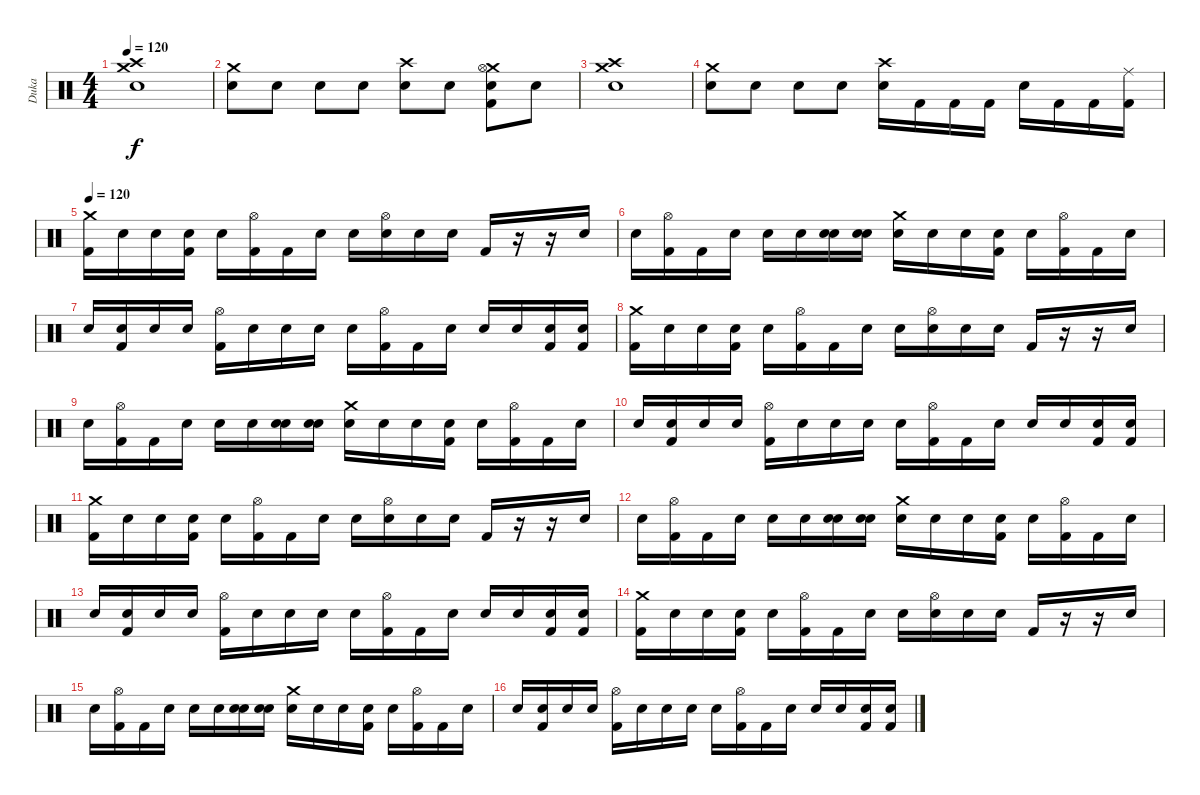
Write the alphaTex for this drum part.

\track ("Duka" "Duka") {instrument percussion}
\staff {score}
\articulation defaults
\ts (4 4)
\tempo 120
\clef neutral
\ks c
("Crash high (hit)" "Crash medium (hit)" "Snare (hit) 2").1{dy f} |
("Snare (hit) 2" "Crash medium (hit)").8 "Snare (hit)".8 "Snare (hit)".8 "Snare (hit)".8 ("Crash high (hit)" "Snare (hit) 2").8 "Snare (hit)".8 ("Crash medium (hit)" "Hi-Hat (open)" "Snare (hit) 2" "Kick (hit) 2").8 "Snare (hit)".8 |
("Crash high (hit)" "Crash medium (hit)" "Snare (hit) 2").1 |
("Snare (hit) 2" "Crash medium (hit)").8 "Snare (hit)".8 "Snare (hit)".8 "Snare (hit)".8 ("Crash high (hit)" "Snare (hit) 2").16 "Kick (hit) 2".16 "Kick (hit) 2".16 "Kick (hit) 2".16 "Snare (hit) 2".16 "Kick (hit) 2".16 "Kick (hit) 2".16 ("Ride (middle)" "Kick (hit) 2").16 |
\tempo 120
("Crash medium (hit)" "Kick (hit) 2").16 "Snare (hit)".16 "Snare (hit)".16 ("Snare (hit) 2" "Kick (hit) 2").16 "Snare (hit)".16 ("Hi-Hat (open)" "Kick (hit) 2").16 "Kick (hit) 2".16 "Snare (hit)".16 "Snare (hit)".16 ("Hi-Hat (open)" "Snare (hit) 2").16 "Snare (hit)".16 "Snare (hit)".16 "Kick (hit) 2".16 r.16 r.16 "Snare (hit) 2".16 |
"Snare (hit)".16 ("Hi-Hat (open)" "Kick (hit) 2").16 "Kick (hit) 2".16 "Snare (hit)".16 "Snare (hit)".16 "Snare (hit) 2".16 ("Snare (hit) 2" "Snare (hit)").16 ("Snare (hit) 2" "Snare (hit)").16 ("Snare (hit) 2" "Crash medium (hit)").16 "Snare (hit)".16 "Snare (hit)".16 ("Snare (hit) 2" "Kick (hit) 2").16 "Snare (hit)".16 ("Hi-Hat (open)" "Kick (hit) 2").16 "Kick (hit) 2".16 "Snare (hit)".16 |
"Snare (hit)".16 ("Snare (hit) 2" "Kick (hit) 2").16 "Snare (hit)".16 "Snare (hit)".16 ("Kick (hit) 2" "Hi-Hat (open)").16 "Snare (hit)".16 "Snare (hit)".16 "Snare (hit) 2".16 "Snare (hit)".16 ("Hi-Hat (open)" "Kick (hit) 2").16 "Kick (hit) 2".16 "Snare (hit)".16 "Snare (hit)".16 "Snare (hit) 2".16 ("Kick (hit) 2" "Snare (hit)").16 ("Kick (hit) 2" "Snare (hit)").16 |
("Crash medium (hit)" "Kick (hit) 2").16 "Snare (hit)".16 "Snare (hit)".16 ("Snare (hit) 2" "Kick (hit) 2").16 "Snare (hit)".16 ("Hi-Hat (open)" "Kick (hit) 2").16 "Kick (hit) 2".16 "Snare (hit)".16 "Snare (hit)".16 ("Hi-Hat (open)" "Snare (hit) 2").16 "Snare (hit)".16 "Snare (hit)".16 "Kick (hit) 2".16 r.16 r.16 "Snare (hit) 2".16 |
"Snare (hit)".16 ("Hi-Hat (open)" "Kick (hit) 2").16 "Kick (hit) 2".16 "Snare (hit)".16 "Snare (hit)".16 "Snare (hit) 2".16 ("Snare (hit) 2" "Snare (hit)").16 ("Snare (hit) 2" "Snare (hit)").16 ("Snare (hit) 2" "Crash medium (hit)").16 "Snare (hit)".16 "Snare (hit)".16 ("Snare (hit) 2" "Kick (hit) 2").16 "Snare (hit)".16 ("Hi-Hat (open)" "Kick (hit) 2").16 "Kick (hit) 2".16 "Snare (hit)".16 |
"Snare (hit)".16 ("Snare (hit) 2" "Kick (hit) 2").16 "Snare (hit)".16 "Snare (hit)".16 ("Kick (hit) 2" "Hi-Hat (open)").16 "Snare (hit)".16 "Snare (hit)".16 "Snare (hit) 2".16 "Snare (hit)".16 ("Hi-Hat (open)" "Kick (hit) 2").16 "Kick (hit) 2".16 "Snare (hit)".16 "Snare (hit)".16 "Snare (hit) 2".16 ("Kick (hit) 2" "Snare (hit)").16 ("Kick (hit) 2" "Snare (hit)").16 |
("Crash medium (hit)" "Kick (hit) 2").16 "Snare (hit)".16 "Snare (hit)".16 ("Snare (hit) 2" "Kick (hit) 2").16 "Snare (hit)".16 ("Hi-Hat (open)" "Kick (hit) 2").16 "Kick (hit) 2".16 "Snare (hit)".16 "Snare (hit)".16 ("Hi-Hat (open)" "Snare (hit) 2").16 "Snare (hit)".16 "Snare (hit)".16 "Kick (hit) 2".16 r.16 r.16 "Snare (hit) 2".16 |
"Snare (hit)".16 ("Hi-Hat (open)" "Kick (hit) 2").16 "Kick (hit) 2".16 "Snare (hit)".16 "Snare (hit)".16 "Snare (hit) 2".16 ("Snare (hit) 2" "Snare (hit)").16 ("Snare (hit) 2" "Snare (hit)").16 ("Snare (hit) 2" "Crash medium (hit)").16 "Snare (hit)".16 "Snare (hit)".16 ("Snare (hit) 2" "Kick (hit) 2").16 "Snare (hit)".16 ("Hi-Hat (open)" "Kick (hit) 2").16 "Kick (hit) 2".16 "Snare (hit)".16 |
"Snare (hit)".16 ("Snare (hit) 2" "Kick (hit) 2").16 "Snare (hit)".16 "Snare (hit)".16 ("Kick (hit) 2" "Hi-Hat (open)").16 "Snare (hit)".16 "Snare (hit)".16 "Snare (hit) 2".16 "Snare (hit)".16 ("Hi-Hat (open)" "Kick (hit) 2").16 "Kick (hit) 2".16 "Snare (hit)".16 "Snare (hit)".16 "Snare (hit) 2".16 ("Kick (hit) 2" "Snare (hit)").16 ("Kick (hit) 2" "Snare (hit)").16 |
("Crash medium (hit)" "Kick (hit) 2").16 "Snare (hit)".16 "Snare (hit)".16 ("Snare (hit) 2" "Kick (hit) 2").16 "Snare (hit)".16 ("Hi-Hat (open)" "Kick (hit) 2").16 "Kick (hit) 2".16 "Snare (hit)".16 "Snare (hit)".16 ("Hi-Hat (open)" "Snare (hit) 2").16 "Snare (hit)".16 "Snare (hit)".16 "Kick (hit) 2".16 r.16 r.16 "Snare (hit) 2".16 |
"Snare (hit)".16 ("Hi-Hat (open)" "Kick (hit) 2").16 "Kick (hit) 2".16 "Snare (hit)".16 "Snare (hit)".16 "Snare (hit) 2".16 ("Snare (hit) 2" "Snare (hit)").16 ("Snare (hit) 2" "Snare (hit)").16 ("Snare (hit) 2" "Crash medium (hit)").16 "Snare (hit)".16 "Snare (hit)".16 ("Snare (hit) 2" "Kick (hit) 2").16 "Snare (hit)".16 ("Hi-Hat (open)" "Kick (hit) 2").16 "Kick (hit) 2".16 "Snare (hit)".16 |
"Snare (hit)".16 ("Snare (hit) 2" "Kick (hit) 2").16 "Snare (hit)".16 "Snare (hit)".16 ("Kick (hit) 2" "Hi-Hat (open)").16 "Snare (hit)".16 "Snare (hit)".16 "Snare (hit) 2".16 "Snare (hit)".16 ("Hi-Hat (open)" "Kick (hit) 2").16 "Kick (hit) 2".16 "Snare (hit)".16 "Snare (hit)".16 "Snare (hit) 2".16 ("Kick (hit) 2" "Snare (hit)").16 ("Kick (hit) 2" "Snare (hit)").16
